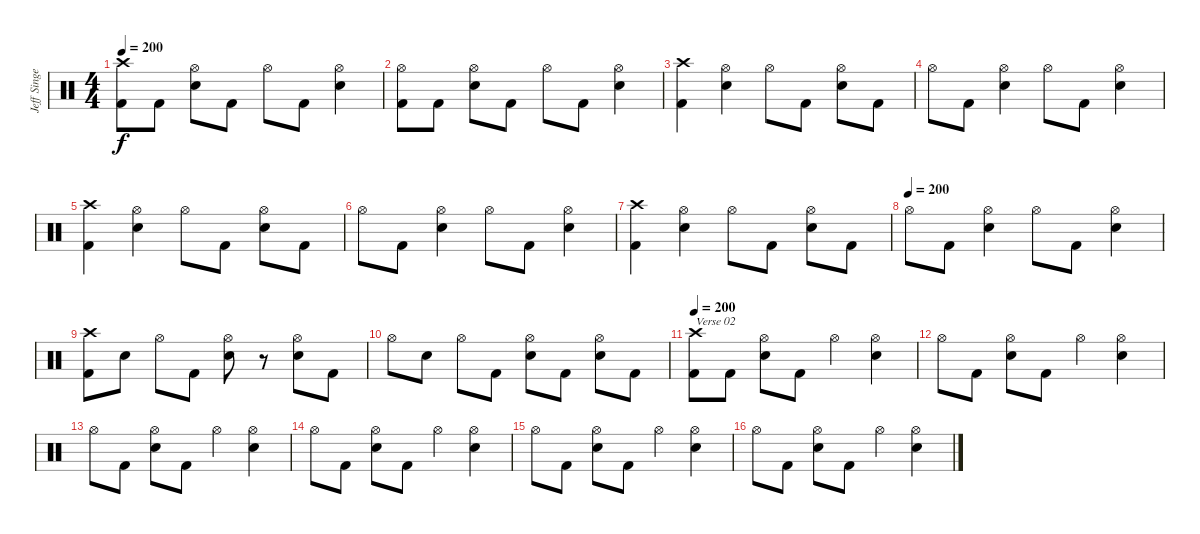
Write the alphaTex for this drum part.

\track ("Jeff Singer" "Jeff Singe") {instrument percussion}
\staff {score}
\articulation defaults
\ts (4 4)
\tempo 200
\clef neutral
\ks c
("Crash high (hit)" "Kick (hit) 2").8{dy f} "Kick (hit) 2".8 ("Hi-Hat (open)" "Snare (hit) 2").8 "Kick (hit) 2".8 "Hi-Hat (open)".8 "Kick (hit) 2".8 ("Hi-Hat (open)" "Snare (hit) 2").4 |
("Hi-Hat (open)" "Kick (hit) 2").8 "Kick (hit) 2".8 ("Hi-Hat (open)" "Snare (hit) 2").8 "Kick (hit) 2".8 "Hi-Hat (open)".8 "Kick (hit) 2".8 ("Hi-Hat (open)" "Snare (hit) 2").4 |
("Crash high (hit)" "Kick (hit) 2").4 ("Hi-Hat (open)" "Snare (hit) 2").4 "Hi-Hat (open)".8 "Kick (hit) 2".8 ("Hi-Hat (open)" "Snare (hit) 2").8 "Kick (hit) 2".8 |
"Hi-Hat (open)".8 "Kick (hit) 2".8 ("Hi-Hat (open)" "Snare (hit) 2").4 "Hi-Hat (open)".8 "Kick (hit) 2".8 ("Hi-Hat (open)" "Snare (hit) 2").4 |
("Crash high (hit)" "Kick (hit) 2").4 ("Hi-Hat (open)" "Snare (hit) 2").4 "Hi-Hat (open)".8 "Kick (hit) 2".8 ("Hi-Hat (open)" "Snare (hit) 2").8 "Kick (hit) 2".8 |
"Hi-Hat (open)".8 "Kick (hit) 2".8 ("Hi-Hat (open)" "Snare (hit) 2").4 "Hi-Hat (open)".8 "Kick (hit) 2".8 ("Hi-Hat (open)" "Snare (hit) 2").4 |
("Crash high (hit)" "Kick (hit) 2").4 ("Hi-Hat (open)" "Snare (hit) 2").4 "Hi-Hat (open)".8 "Kick (hit) 2".8 ("Hi-Hat (open)" "Snare (hit) 2").8 "Kick (hit) 2".8 |
\tempo (200)
"Hi-Hat (open)".8 "Kick (hit) 2".8 ("Hi-Hat (open)" "Snare (hit) 2").4 "Hi-Hat (open)".8 "Kick (hit) 2".8 ("Hi-Hat (open)" "Snare (hit) 2").4 |
("Crash high (hit)" "Kick (hit) 2").8 "Snare (hit) 2".8 "Hi-Hat (open)".8 "Kick (hit) 2".8 ("Hi-Hat (open)" "Snare (hit) 2").8 r.8 ("Hi-Hat (open)" "Snare (hit) 2").8 "Kick (hit) 2".8 |
"Hi-Hat (open)".8 "Snare (hit) 2".8 "Hi-Hat (open)".8 "Kick (hit) 2".8 ("Hi-Hat (open)" "Snare (hit) 2").8 "Kick (hit) 2".8 ("Hi-Hat (open)" "Snare (hit) 2").8 "Kick (hit) 2".8 |
\tempo 200
("Crash high (hit)" "Kick (hit) 2").8{txt "Verse 02"} "Kick (hit) 2".8 ("Hi-Hat (open)" "Snare (hit) 2").8 "Kick (hit) 2".8 "Hi-Hat (open)".4 ("Hi-Hat (open)" "Snare (hit) 2").4 |
"Hi-Hat (open)".8 "Kick (hit) 2".8 ("Hi-Hat (open)" "Snare (hit) 2").8 "Kick (hit) 2".8 "Hi-Hat (open)".4 ("Hi-Hat (open)" "Snare (hit) 2").4 |
"Hi-Hat (open)".8 "Kick (hit) 2".8 ("Hi-Hat (open)" "Snare (hit) 2").8 "Kick (hit) 2".8 "Hi-Hat (open)".4 ("Hi-Hat (open)" "Snare (hit) 2").4 |
"Hi-Hat (open)".8 "Kick (hit) 2".8 ("Hi-Hat (open)" "Snare (hit) 2").8 "Kick (hit) 2".8 "Hi-Hat (open)".4 ("Hi-Hat (open)" "Snare (hit) 2").4 |
"Hi-Hat (open)".8 "Kick (hit) 2".8 ("Hi-Hat (open)" "Snare (hit) 2").8 "Kick (hit) 2".8 "Hi-Hat (open)".4 ("Hi-Hat (open)" "Snare (hit) 2").4 |
"Hi-Hat (open)".8 "Kick (hit) 2".8 ("Hi-Hat (open)" "Snare (hit) 2").8 "Kick (hit) 2".8 "Hi-Hat (open)".4 ("Hi-Hat (open)" "Snare (hit) 2").4
